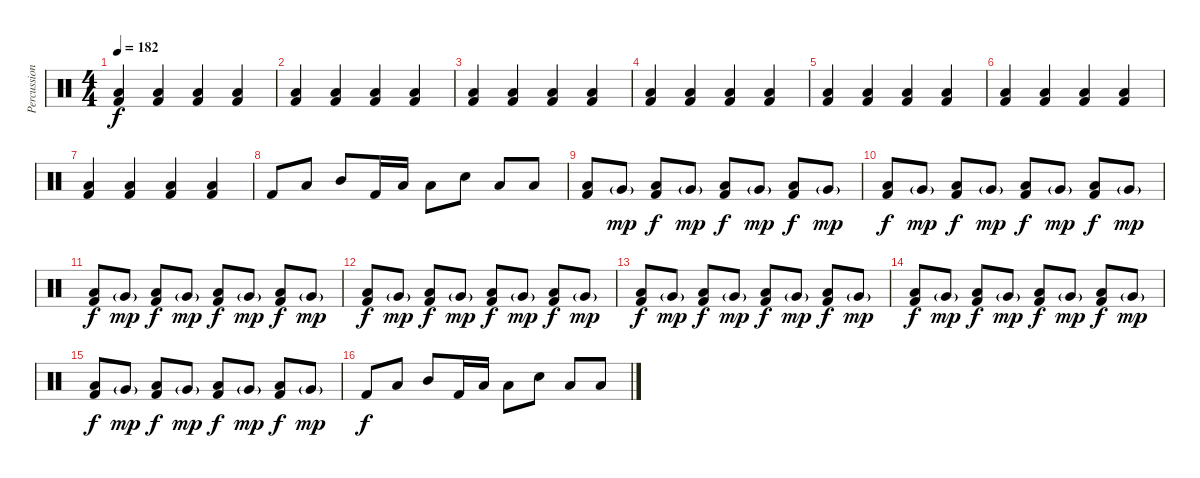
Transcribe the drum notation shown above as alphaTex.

\track ("Percussion" "Percussion") {instrument percussion}
\staff {score}
\articulation defaults
\ts (4 4)
\tempo 182
\clef neutral
\ks c
("Low Floor Tom (hit)" "Kick (hit) 2").4{dy f} ("Low Floor Tom (hit)" "Kick (hit) 2").4 ("Low Floor Tom (hit)" "Kick (hit) 2").4 ("Low Floor Tom (hit)" "Kick (hit) 2").4 |
("Low Floor Tom (hit)" "Kick (hit) 2").4 ("Low Floor Tom (hit)" "Kick (hit) 2").4 ("Low Floor Tom (hit)" "Kick (hit) 2").4 ("Low Floor Tom (hit)" "Kick (hit) 2").4 |
("Low Floor Tom (hit)" "Kick (hit) 2").4 ("Low Floor Tom (hit)" "Kick (hit) 2").4 ("Low Floor Tom (hit)" "Kick (hit) 2").4 ("Low Floor Tom (hit)" "Kick (hit) 2").4 |
("Low Floor Tom (hit)" "Kick (hit) 2").4 ("Low Floor Tom (hit)" "Kick (hit) 2").4 ("Low Floor Tom (hit)" "Kick (hit) 2").4 ("Low Floor Tom (hit)" "Kick (hit) 2").4 |
("Low Floor Tom (hit)" "Kick (hit) 2").4 ("Low Floor Tom (hit)" "Kick (hit) 2").4 ("Low Floor Tom (hit)" "Kick (hit) 2").4 ("Low Floor Tom (hit)" "Kick (hit) 2").4 |
("Low Floor Tom (hit)" "Kick (hit) 2").4 ("Low Floor Tom (hit)" "Kick (hit) 2").4 ("Low Floor Tom (hit)" "Kick (hit) 2").4 ("Low Floor Tom (hit)" "Kick (hit) 2").4 |
("Low Floor Tom (hit)" "Kick (hit) 2").4 ("Low Floor Tom (hit)" "Kick (hit) 2").4 ("Low Floor Tom (hit)" "Kick (hit) 2").4 ("Low Floor Tom (hit)" "Kick (hit) 2").4 |
"Kick (hit) 2".8 "Low Tom (hit)".8 "Mid Tom (hit)".8 "Kick (hit) 2".16 "Low Tom (hit)".16 "Low Tom (hit)".8 "Snare (hit) 2".8 "Low Tom (hit)".8 "Low Floor Tom (hit)".8 |
("Low Floor Tom (hit)" "Kick (hit) 2").8 "Very Low Tom (hit)"{g}.8{dy mp} ("Low Floor Tom (hit)" "Kick (hit) 2").8{dy f} "Very Low Tom (hit)"{g}.8{dy mp} ("Low Floor Tom (hit)" "Kick (hit) 2").8{dy f} "Very Low Tom (hit)"{g}.8{dy mp} ("Low Floor Tom (hit)" "Kick (hit) 2").8{dy f} "Very Low Tom (hit)"{g}.8{dy mp} |
("Low Floor Tom (hit)" "Kick (hit) 2").8{dy f} "Very Low Tom (hit)"{g}.8{dy mp} ("Low Floor Tom (hit)" "Kick (hit) 2").8{dy f} "Very Low Tom (hit)"{g}.8{dy mp} ("Low Floor Tom (hit)" "Kick (hit) 2").8{dy f} "Very Low Tom (hit)"{g}.8{dy mp} ("Low Floor Tom (hit)" "Kick (hit) 2").8{dy f} "Very Low Tom (hit)"{g}.8{dy mp} |
("Low Floor Tom (hit)" "Kick (hit) 2").8{dy f} "Very Low Tom (hit)"{g}.8{dy mp} ("Low Floor Tom (hit)" "Kick (hit) 2").8{dy f} "Very Low Tom (hit)"{g}.8{dy mp} ("Low Floor Tom (hit)" "Kick (hit) 2").8{dy f} "Very Low Tom (hit)"{g}.8{dy mp} ("Low Floor Tom (hit)" "Kick (hit) 2").8{dy f} "Very Low Tom (hit)"{g}.8{dy mp} |
("Low Floor Tom (hit)" "Kick (hit) 2").8{dy f} "Very Low Tom (hit)"{g}.8{dy mp} ("Low Floor Tom (hit)" "Kick (hit) 2").8{dy f} "Very Low Tom (hit)"{g}.8{dy mp} ("Low Floor Tom (hit)" "Kick (hit) 2").8{dy f} "Very Low Tom (hit)"{g}.8{dy mp} ("Low Floor Tom (hit)" "Kick (hit) 2").8{dy f} "Very Low Tom (hit)"{g}.8{dy mp} |
("Low Floor Tom (hit)" "Kick (hit) 2").8{dy f} "Very Low Tom (hit)"{g}.8{dy mp} ("Low Floor Tom (hit)" "Kick (hit) 2").8{dy f} "Very Low Tom (hit)"{g}.8{dy mp} ("Low Floor Tom (hit)" "Kick (hit) 2").8{dy f} "Very Low Tom (hit)"{g}.8{dy mp} ("Low Floor Tom (hit)" "Kick (hit) 2").8{dy f} "Very Low Tom (hit)"{g}.8{dy mp} |
("Low Floor Tom (hit)" "Kick (hit) 2").8{dy f} "Very Low Tom (hit)"{g}.8{dy mp} ("Low Floor Tom (hit)" "Kick (hit) 2").8{dy f} "Very Low Tom (hit)"{g}.8{dy mp} ("Low Floor Tom (hit)" "Kick (hit) 2").8{dy f} "Very Low Tom (hit)"{g}.8{dy mp} ("Low Floor Tom (hit)" "Kick (hit) 2").8{dy f} "Very Low Tom (hit)"{g}.8{dy mp} |
("Low Floor Tom (hit)" "Kick (hit) 2").8{dy f} "Very Low Tom (hit)"{g}.8{dy mp} ("Low Floor Tom (hit)" "Kick (hit) 2").8{dy f} "Very Low Tom (hit)"{g}.8{dy mp} ("Low Floor Tom (hit)" "Kick (hit) 2").8{dy f} "Very Low Tom (hit)"{g}.8{dy mp} ("Low Floor Tom (hit)" "Kick (hit) 2").8{dy f} "Very Low Tom (hit)"{g}.8{dy mp} |
"Kick (hit) 2".8{dy f} "Low Tom (hit)".8 "Mid Tom (hit)".8 "Kick (hit) 2".16 "Low Tom (hit)".16 "Low Tom (hit)".8 "Snare (hit) 2".8 "Low Tom (hit)".8 "Low Floor Tom (hit)".8
